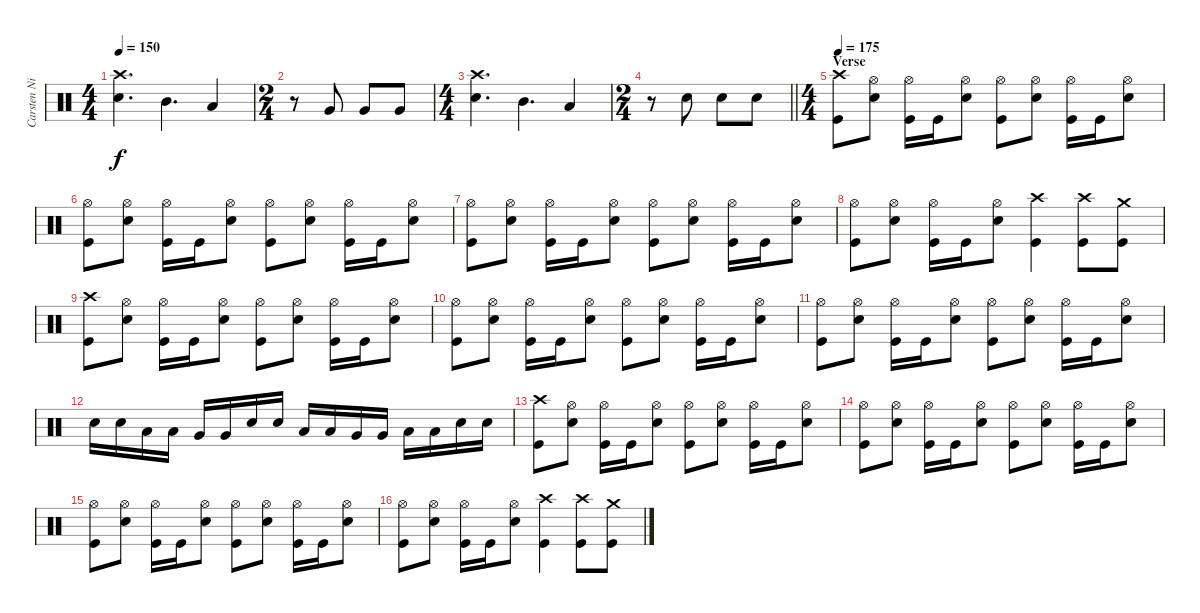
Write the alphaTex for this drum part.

\track ("Carsten Nielsen" "Carsten Ni") {instrument percussion}
\staff {score}
\articulation defaults
\ts (4 4)
\tempo 150
\clef neutral
\ks c
("Crash high (hit)" "Electric Snare (hit)").4{d dy f} "Mid Tom (hit)".4{d} "Low Tom (hit)".4 |
\ts (2 4)
r.8 "Very Low Tom (hit)".8 "Very Low Tom (hit)".8 "Very Low Tom (hit)".8 |
\ts (4 4)
("Crash high (hit)" "Electric Snare (hit)").4{d} "Mid Tom (hit)".4{d} "Low Tom (hit)".4 |
\ts (2 4)
\barLineRight lightlight
r.8 "Electric Snare (hit)".8 "Electric Snare (hit)".8 "Electric Snare (hit)".8 |
\ts (4 4)
\section ("" "Verse")
\tempo 175
("Crash high (hit)" "Kick (hit)").8 ("Hi-Hat (open)" "Electric Snare (hit)").8 ("Hi-Hat (open)" "Kick (hit)").16 "Kick (hit)".16 ("Hi-Hat (open)" "Electric Snare (hit)").8 ("Hi-Hat (open)" "Kick (hit)").8 ("Hi-Hat (open)" "Electric Snare (hit)").8 ("Hi-Hat (open)" "Kick (hit)").16 "Kick (hit)".16 ("Hi-Hat (open)" "Electric Snare (hit)").8 |
("Hi-Hat (open)" "Kick (hit)").8 ("Hi-Hat (open)" "Electric Snare (hit)").8 ("Hi-Hat (open)" "Kick (hit)").16 "Kick (hit)".16 ("Hi-Hat (open)" "Electric Snare (hit)").8 ("Hi-Hat (open)" "Kick (hit)").8 ("Hi-Hat (open)" "Electric Snare (hit)").8 ("Hi-Hat (open)" "Kick (hit)").16 "Kick (hit)".16 ("Hi-Hat (open)" "Electric Snare (hit)").8 |
("Hi-Hat (open)" "Kick (hit)").8 ("Hi-Hat (open)" "Electric Snare (hit)").8 ("Hi-Hat (open)" "Kick (hit)").16 "Kick (hit)".16 ("Hi-Hat (open)" "Electric Snare (hit)").8 ("Hi-Hat (open)" "Kick (hit)").8 ("Hi-Hat (open)" "Electric Snare (hit)").8 ("Hi-Hat (open)" "Kick (hit)").16 "Kick (hit)".16 ("Hi-Hat (open)" "Electric Snare (hit)").8 |
("Hi-Hat (open)" "Kick (hit)").8 ("Hi-Hat (open)" "Electric Snare (hit)").8 ("Hi-Hat (open)" "Kick (hit)").16 "Kick (hit)".16 ("Hi-Hat (open)" "Electric Snare (hit)").8 ("Crash high (hit)" "Kick (hit)").4 ("Crash high (hit)" "Kick (hit)").8 ("Crash medium (hit)" "Kick (hit)").8 |
("Crash high (hit)" "Kick (hit)").8 ("Hi-Hat (open)" "Electric Snare (hit)").8 ("Hi-Hat (open)" "Kick (hit)").16 "Kick (hit)".16 ("Hi-Hat (open)" "Electric Snare (hit)").8 ("Hi-Hat (open)" "Kick (hit)").8 ("Hi-Hat (open)" "Electric Snare (hit)").8 ("Hi-Hat (open)" "Kick (hit)").16 "Kick (hit)".16 ("Hi-Hat (open)" "Electric Snare (hit)").8 |
("Hi-Hat (open)" "Kick (hit)").8 ("Hi-Hat (open)" "Electric Snare (hit)").8 ("Hi-Hat (open)" "Kick (hit)").16 "Kick (hit)".16 ("Hi-Hat (open)" "Electric Snare (hit)").8 ("Hi-Hat (open)" "Kick (hit)").8 ("Hi-Hat (open)" "Electric Snare (hit)").8 ("Hi-Hat (open)" "Kick (hit)").16 "Kick (hit)".16 ("Hi-Hat (open)" "Electric Snare (hit)").8 |
("Hi-Hat (open)" "Kick (hit)").8 ("Hi-Hat (open)" "Electric Snare (hit)").8 ("Hi-Hat (open)" "Kick (hit)").16 "Kick (hit)".16 ("Hi-Hat (open)" "Electric Snare (hit)").8 ("Hi-Hat (open)" "Kick (hit)").8 ("Hi-Hat (open)" "Electric Snare (hit)").8 ("Hi-Hat (open)" "Kick (hit)").16 "Kick (hit)".16 ("Hi-Hat (open)" "Electric Snare (hit)").8 |
"Electric Snare (hit)".16 "Electric Snare (hit)".16 "Low Tom (hit)".16 "Low Tom (hit)".16 "Very Low Tom (hit)".16 "Very Low Tom (hit)".16 "Electric Snare (hit)".16 "Electric Snare (hit)".16 "Low Tom (hit)".16 "Low Tom (hit)".16 "Very Low Tom (hit)".16 "Very Low Tom (hit)".16 "Low Floor Tom (hit)".16 "Low Floor Tom (hit)".16 "Electric Snare (hit)".16 "Electric Snare (hit)".16 |
("Crash high (hit)" "Kick (hit)").8 ("Hi-Hat (open)" "Electric Snare (hit)").8 ("Hi-Hat (open)" "Kick (hit)").16 "Kick (hit)".16 ("Hi-Hat (open)" "Electric Snare (hit)").8 ("Hi-Hat (open)" "Kick (hit)").8 ("Hi-Hat (open)" "Electric Snare (hit)").8 ("Hi-Hat (open)" "Kick (hit)").16 "Kick (hit)".16 ("Hi-Hat (open)" "Electric Snare (hit)").8 |
("Hi-Hat (open)" "Kick (hit)").8 ("Hi-Hat (open)" "Electric Snare (hit)").8 ("Hi-Hat (open)" "Kick (hit)").16 "Kick (hit)".16 ("Hi-Hat (open)" "Electric Snare (hit)").8 ("Hi-Hat (open)" "Kick (hit)").8 ("Hi-Hat (open)" "Electric Snare (hit)").8 ("Hi-Hat (open)" "Kick (hit)").16 "Kick (hit)".16 ("Hi-Hat (open)" "Electric Snare (hit)").8 |
("Hi-Hat (open)" "Kick (hit)").8 ("Hi-Hat (open)" "Electric Snare (hit)").8 ("Hi-Hat (open)" "Kick (hit)").16 "Kick (hit)".16 ("Hi-Hat (open)" "Electric Snare (hit)").8 ("Hi-Hat (open)" "Kick (hit)").8 ("Hi-Hat (open)" "Electric Snare (hit)").8 ("Hi-Hat (open)" "Kick (hit)").16 "Kick (hit)".16 ("Hi-Hat (open)" "Electric Snare (hit)").8 |
("Hi-Hat (open)" "Kick (hit)").8 ("Hi-Hat (open)" "Electric Snare (hit)").8 ("Hi-Hat (open)" "Kick (hit)").16 "Kick (hit)".16 ("Hi-Hat (open)" "Electric Snare (hit)").8 ("Crash high (hit)" "Kick (hit)").4 ("Crash high (hit)" "Kick (hit)").8 ("Crash medium (hit)" "Kick (hit)").8
